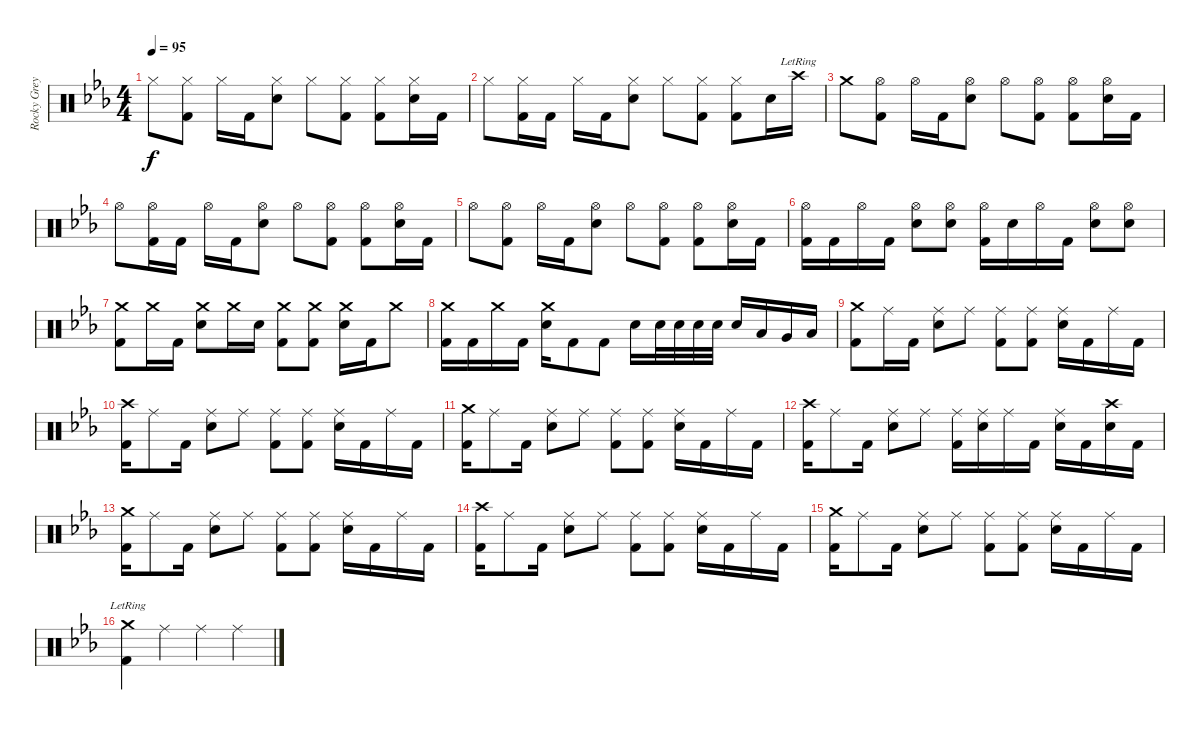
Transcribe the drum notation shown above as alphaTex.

\track ("Rocky Grey" "Rocky Grey") {instrument percussion}
\staff {score}
\articulation defaults
\ts (4 4)
\tempo 95
\clef neutral
\ks eb "Hi-Hat (closed)".8{dy f}
("Hi-Hat (closed)" "Kick (hit) 2").8 "Hi-Hat (closed)".16 "Kick (hit) 2".16 ("Hi-Hat (closed)" "Snare (hit) 2").8 "Hi-Hat (closed)".8 ("Hi-Hat (closed)" "Kick (hit) 2").8 ("Hi-Hat (closed)" "Kick (hit) 2").8 ("Hi-Hat (closed)" "Snare (hit) 2").16 "Kick (hit) 2".16 |
"Hi-Hat (closed)".8 ("Hi-Hat (closed)" "Kick (hit) 2").16 "Kick (hit) 2".16 "Hi-Hat (closed)".16 "Kick (hit) 2".16 ("Hi-Hat (closed)" "Snare (hit) 2").8 "Hi-Hat (closed)".8 ("Hi-Hat (closed)" "Kick (hit) 2").8 ("Hi-Hat (closed)" "Kick (hit) 2").8 "Snare (hit) 2".16 "Crash high (hit)"{lr}.16 |
"Crash medium (hit)".8 ("Hi-Hat (open)" "Kick (hit) 2").8 "Hi-Hat (open)".16 "Kick (hit) 2".16 ("Hi-Hat (open)" "Snare (hit) 2").8 "Hi-Hat (open)".8 ("Hi-Hat (open)" "Kick (hit) 2").8 ("Hi-Hat (open)" "Kick (hit) 2").8 ("Hi-Hat (open)" "Snare (hit) 2").16 "Kick (hit) 2".16 |
"Hi-Hat (open)".8 ("Hi-Hat (open)" "Kick (hit) 2").16 "Kick (hit) 2".16 "Hi-Hat (open)".16 "Kick (hit) 2".16 ("Hi-Hat (open)" "Snare (hit) 2").8 "Hi-Hat (open)".8 ("Hi-Hat (open)" "Kick (hit) 2").8 ("Hi-Hat (open)" "Kick (hit) 2").8 ("Hi-Hat (open)" "Snare (hit) 2").16 "Kick (hit) 2".16 |
"Hi-Hat (open)".8 ("Hi-Hat (open)" "Kick (hit) 2").8 "Hi-Hat (open)".16 "Kick (hit) 2".16 ("Hi-Hat (open)" "Snare (hit) 2").8 "Hi-Hat (open)".8 ("Hi-Hat (open)" "Kick (hit) 2").8 ("Hi-Hat (open)" "Kick (hit) 2").8 ("Hi-Hat (open)" "Snare (hit) 2").16 "Kick (hit) 2".16 |
("Hi-Hat (open)" "Kick (hit) 2").16 "Kick (hit) 2".16 "Hi-Hat (open)".16 "Kick (hit) 2".16 ("Hi-Hat (open)" "Snare (hit) 2").8 ("Hi-Hat (open)" "Snare (hit) 2").8 ("Hi-Hat (open)" "Kick (hit) 2").16 "Snare (hit) 2".16 "Hi-Hat (open)".16 "Kick (hit) 2".16 ("Hi-Hat (open)" "Snare (hit) 2").8 ("Hi-Hat (open)" "Snare (hit) 2").8 |
("Crash medium (hit)" "Kick (hit) 2").8 "Crash medium (hit)".16 "Kick (hit) 2".16 ("Crash medium (hit)" "Snare (hit) 2").8 "Crash medium (hit)".16 "Snare (hit) 2".16 ("Crash medium (hit)" "Kick (hit) 2").8 ("Crash medium (hit)" "Kick (hit) 2").8 ("Crash medium (hit)" "Snare (hit) 2").16 "Kick (hit) 2".16 "Crash medium (hit)".8 |
("Crash medium (hit)" "Kick (hit) 2").16 "Kick (hit) 2".16 "Crash medium (hit)".16 "Kick (hit) 2".16 ("Crash medium (hit)" "Snare (hit) 2").16 "Kick (hit) 2".8 "Kick (hit) 2".8 "Snare (hit) 2".16 "Snare (hit) 2".32 "Snare (hit) 2".32 "Snare (hit) 2".32 "Snare (hit) 2".32 "Snare (hit) 2".16 "Low Tom (hit)".16 "Very Low Tom (hit)".16 "Low Floor Tom (hit)".16 |
("Crash medium (hit)" "Kick (hit) 2").8 "Ride (middle)".16 "Kick (hit) 2".16 ("Ride (middle)" "Snare (hit) 2").8 "Ride (middle)".8 ("Ride (middle)" "Kick (hit) 2").8 ("Ride (middle)" "Kick (hit) 2").8 ("Ride (middle)" "Snare (hit) 2").16 "Kick (hit) 2".16 "Ride (middle)".16 "Kick (hit) 2".16 |
("Crash high (hit)" "Kick (hit) 2").16 "Ride (middle)".8 "Kick (hit) 2".16 ("Ride (middle)" "Snare (hit) 2").8 "Ride (middle)".8 ("Ride (middle)" "Kick (hit) 2").8 ("Ride (middle)" "Kick (hit) 2").8 ("Ride (middle)" "Snare (hit) 2").16 "Kick (hit) 2".16 "Ride (middle)".16 "Kick (hit) 2".16 |
("Crash medium (hit)" "Kick (hit) 2").16 "Ride (middle)".8 "Kick (hit) 2".16 ("Ride (middle)" "Snare (hit) 2").8 "Ride (middle)".8 ("Ride (middle)" "Kick (hit) 2").8 ("Ride (middle)" "Kick (hit) 2").8 ("Ride (middle)" "Snare (hit) 2").16 "Kick (hit) 2".16 "Ride (middle)".16 "Kick (hit) 2".16 |
("Crash high (hit)" "Kick (hit) 2").16 "Ride (middle)".8 "Kick (hit) 2".16 ("Ride (middle)" "Snare (hit) 2").8 "Ride (middle)".8 ("Ride (middle)" "Kick (hit) 2").16 ("Ride (middle)" "Snare (hit) 2").16 "Ride (middle)".16 "Kick (hit) 2".16 ("Ride (middle)" "Snare (hit) 2").16 "Kick (hit) 2".16 ("Crash high (hit)" "Snare (hit) 2").16 "Kick (hit) 2".16 |
("Crash medium (hit)" "Kick (hit) 2").16 "Ride (middle)".8 "Kick (hit) 2".16 ("Ride (middle)" "Snare (hit) 2").8 "Ride (middle)".8 ("Ride (middle)" "Kick (hit) 2").8 ("Ride (middle)" "Kick (hit) 2").8 ("Ride (middle)" "Snare (hit) 2").16 "Kick (hit) 2".16 "Ride (middle)".16 "Kick (hit) 2".16 |
("Crash high (hit)" "Kick (hit) 2").16 "Ride (middle)".8 "Kick (hit) 2".16 ("Ride (middle)" "Snare (hit) 2").8 "Ride (middle)".8 ("Ride (middle)" "Kick (hit) 2").8 ("Ride (middle)" "Kick (hit) 2").8 ("Ride (middle)" "Snare (hit) 2").16 "Kick (hit) 2".16 "Ride (middle)".16 "Kick (hit) 2".16 |
("Crash medium (hit)" "Kick (hit) 2").16 "Ride (middle)".8 "Kick (hit) 2".16 ("Ride (middle)" "Snare (hit) 2").8 "Ride (middle)".8 ("Ride (middle)" "Kick (hit) 2").8 ("Ride (middle)" "Kick (hit) 2").8 ("Ride (middle)" "Snare (hit) 2").16 "Kick (hit) 2".16 "Ride (middle)".16 "Kick (hit) 2".16 |
("Crash medium (hit)"{lr} "Kick (hit) 2").4 "Ride (middle)".4 "Ride (middle)".4 "Ride (middle)".4
